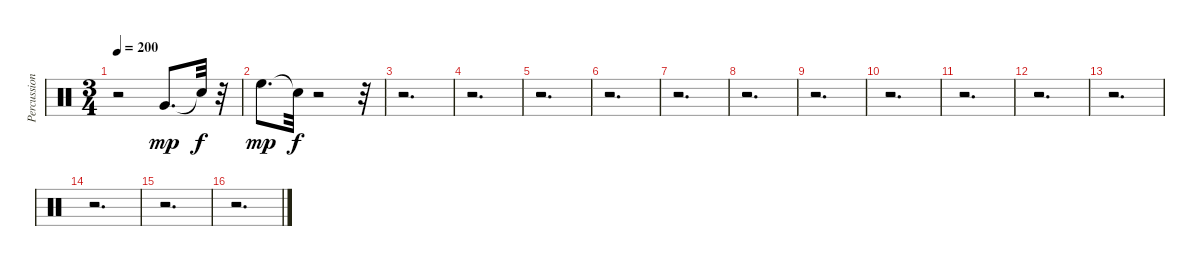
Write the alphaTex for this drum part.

\track ("Percussion." "Percussion") {instrument percussion}
\staff {score}
\articulation defaults
\ts (3 4)
\tempo 200
\clef neutral
\ks c
r.2{dy f} "Very Low Tom (hit)".8{d dy mp} "Snare (hit)"{t}.32{dy f} r.32 |
"High Floor Tom (hit)".8{d dy mp} "Snare (hit)"{t}.32{dy f} r.2 r.32 |
r.2{d} |
r.2{d} |
r.2{d} |
r.2{d} |
r.2{d} |
r.2{d} |
r.2{d} |
r.2{d} |
r.2{d} |
r.2{d} |
r.2{d} |
r.2{d} |
r.2{d} |
r.2{d}
